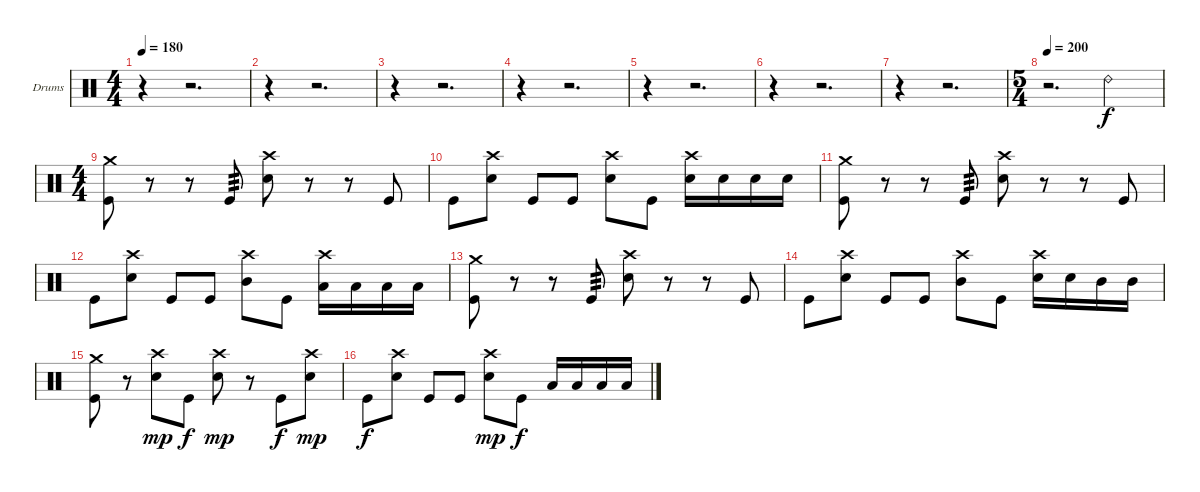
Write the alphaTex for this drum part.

\bracketExtendMode groupsimilarinstruments
\firstSystemTrackNameOrientation horizontal
\otherSystemsTrackNameOrientation horizontal
\track ("Drumkit" "Drums") {instrument percussion}
\staff {score}
\articulation defaults
\ts (4 4)
\tempo 180
\clef neutral
\ks c
r.4{dy fff} r.2{d} |
r.4 r.2{d} |
r.4 r.2{d} |
r.4 r.2{d} |
r.4 r.2{d} |
r.4 r.2{d} |
r.4 r.2{d} |
\ts (5 4)
\beaming (8 6 4)
\tempo 200
r.2{d} "Ride (bell) 2".2{dy f} |
\ts (4 4)
\beaming (8 2 2 2 2)
("Crash medium (hit)" "Kick (hit)").8 r.8 r.8 "Kick (hit)".8{tp 3} ("Crash high (hit)" "Snare (hit) 2").8 r.8 r.8 "Kick (hit)".8 |
"Kick (hit)".8 ("Crash high (hit)" "Snare (hit) 2").8 "Kick (hit)".8 "Kick (hit)".8 ("Crash high (hit)" "Snare (hit) 2").8 "Kick (hit)".8 ("Crash high (hit)" "Snare (hit) 2").16 "Snare (hit) 2".16 "Snare (hit) 2".16 "Snare (hit) 2".16 |
("Crash medium (hit)" "Kick (hit)").8 r.8 r.8 "Kick (hit)".8{tp 3} ("Crash high (hit)" "Snare (hit) 2").8 r.8 r.8 "Kick (hit)".8 |
"Kick (hit)".8 ("Crash high (hit)" "Snare (hit) 2").8 "Kick (hit)".8 "Kick (hit)".8 ("Crash high (hit)" "Mid Tom (hit)").8 "Kick (hit)".8 ("Crash high (hit)" "Low Tom (hit)").16 "Low Tom (hit)".16 "Low Tom (hit)".16 "Low Tom (hit)".16 |
("Crash medium (hit)" "Kick (hit)").8 r.8 r.8 "Kick (hit)".8{tp 3} ("Crash high (hit)" "Snare (hit) 2").8 r.8 r.8 "Kick (hit)".8 |
"Kick (hit)".8 ("Crash high (hit)" "Snare (hit) 2").8 "Kick (hit)".8 "Kick (hit)".8 ("Crash high (hit)" "Mid Tom (hit)").8 "Kick (hit)".8 ("Crash high (hit)" "Snare (hit) 2").16 "Snare (hit) 2".16 "Mid Tom (hit)".16 "Mid Tom (hit)".16 |
("Crash medium (hit)" "Kick (hit)").8 r.8 ("Crash high (hit)" "Snare (hit) 2").8{dy mp} "Kick (hit)".8{dy f} ("Crash high (hit)" "Snare (hit) 2").8{dy mp} r.8 "Kick (hit)".8{dy f} ("Crash high (hit)" "Snare (hit) 2").8{dy mp} |
"Kick (hit)".8{dy f} ("Crash high (hit)" "Snare (hit) 2").8 "Kick (hit)".8 "Kick (hit)".8 ("Crash high (hit)" "Snare (hit) 2").8{dy mp} "Kick (hit)".8{dy f} "Low Tom (hit)".16 "Low Tom (hit)".16 "Low Tom (hit)".16 "Low Tom (hit)".16
